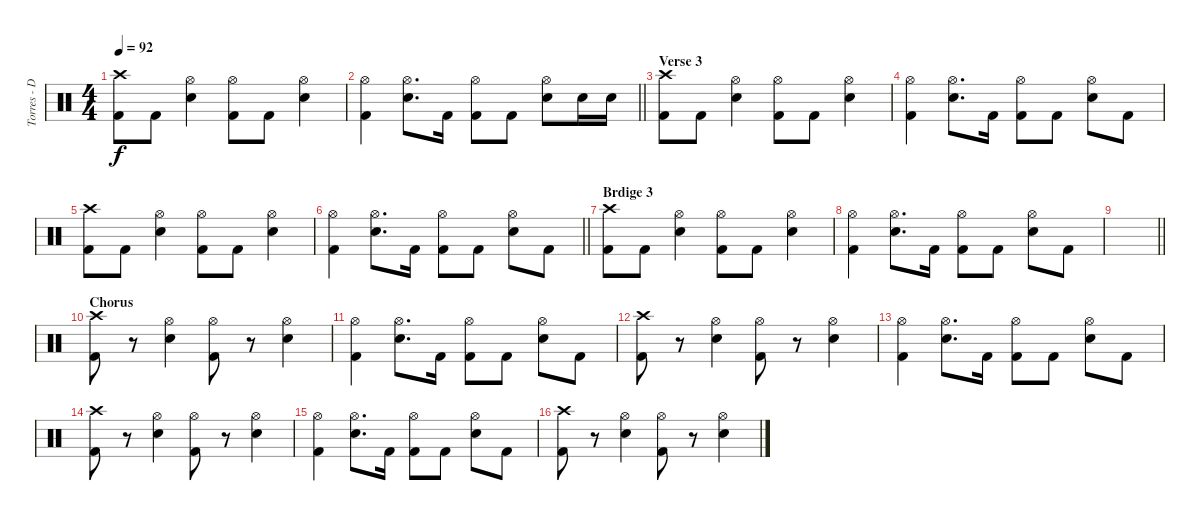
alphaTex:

\track ("Torres - Drums" "Torres - D") {instrument percussion}
\staff {score}
\articulation defaults
\ts (4 4)
\tempo 92
\clef neutral
\ks c
("Kick (hit) 2" "Crash high (hit)").8{dy f} "Kick (hit) 2".8 ("Electric Snare (hit)" "Hi-Hat (open)").4 ("Kick (hit) 2" "Hi-Hat (open)").8 "Kick (hit) 2".8 ("Electric Snare (hit)" "Hi-Hat (open)").4 |
\barLineRight lightlight
("Kick (hit) 2" "Hi-Hat (open)").4 ("Electric Snare (hit)" "Hi-Hat (open)").8{d} "Kick (hit) 2".16 ("Kick (hit) 2" "Hi-Hat (open)").8 "Kick (hit) 2".8 ("Electric Snare (hit)" "Hi-Hat (open)").8 "Electric Snare (hit)".16 "Electric Snare (hit)".16 |
\section ("" "Verse 3")
("Kick (hit) 2" "Crash high (hit)").8 "Kick (hit) 2".8 ("Electric Snare (hit)" "Hi-Hat (open)").4 ("Kick (hit) 2" "Hi-Hat (open)").8 "Kick (hit) 2".8 ("Electric Snare (hit)" "Hi-Hat (open)").4 |
("Kick (hit) 2" "Hi-Hat (open)").4 ("Electric Snare (hit)" "Hi-Hat (open)").8{d} "Kick (hit) 2".16 ("Kick (hit) 2" "Hi-Hat (open)").8 "Kick (hit) 2".8 ("Electric Snare (hit)" "Hi-Hat (open)").8 "Kick (hit) 2".8 |
("Kick (hit) 2" "Crash high (hit)").8 "Kick (hit) 2".8 ("Electric Snare (hit)" "Hi-Hat (open)").4 ("Kick (hit) 2" "Hi-Hat (open)").8 "Kick (hit) 2".8 ("Electric Snare (hit)" "Hi-Hat (open)").4 |
\barLineRight lightlight
("Kick (hit) 2" "Hi-Hat (open)").4 ("Electric Snare (hit)" "Hi-Hat (open)").8{d} "Kick (hit) 2".16 ("Kick (hit) 2" "Hi-Hat (open)").8 "Kick (hit) 2".8 ("Electric Snare (hit)" "Hi-Hat (open)").8 "Kick (hit) 2".8 |
\section ("" "Brdige 3")
("Kick (hit) 2" "Crash high (hit)").8 "Kick (hit) 2".8 ("Electric Snare (hit)" "Hi-Hat (open)").4 ("Kick (hit) 2" "Hi-Hat (open)").8 "Kick (hit) 2".8 ("Electric Snare (hit)" "Hi-Hat (open)").4 |
("Kick (hit) 2" "Hi-Hat (open)").4 ("Electric Snare (hit)" "Hi-Hat (open)").8{d} "Kick (hit) 2".16 ("Kick (hit) 2" "Hi-Hat (open)").8 "Kick (hit) 2".8 ("Electric Snare (hit)" "Hi-Hat (open)").8 "Kick (hit) 2".8 |
\barLineRight lightlight
|
\section ("" "Chorus")
("Kick (hit) 2" "Crash high (hit)").8 r.8 ("Electric Snare (hit)" "Hi-Hat (open)").4 ("Kick (hit) 2" "Hi-Hat (open)").8 r.8 ("Electric Snare (hit)" "Hi-Hat (open)").4 |
("Kick (hit) 2" "Hi-Hat (open)").4 ("Electric Snare (hit)" "Hi-Hat (open)").8{d} "Kick (hit) 2".16 ("Kick (hit) 2" "Hi-Hat (open)").8 "Kick (hit) 2".8 ("Electric Snare (hit)" "Hi-Hat (open)").8 "Kick (hit) 2".8 |
("Kick (hit) 2" "Crash high (hit)").8 r.8 ("Electric Snare (hit)" "Hi-Hat (open)").4 ("Kick (hit) 2" "Hi-Hat (open)").8 r.8 ("Electric Snare (hit)" "Hi-Hat (open)").4 |
("Kick (hit) 2" "Hi-Hat (open)").4 ("Electric Snare (hit)" "Hi-Hat (open)").8{d} "Kick (hit) 2".16 ("Kick (hit) 2" "Hi-Hat (open)").8 "Kick (hit) 2".8 ("Electric Snare (hit)" "Hi-Hat (open)").8 "Kick (hit) 2".8 |
("Kick (hit) 2" "Crash high (hit)").8 r.8 ("Electric Snare (hit)" "Hi-Hat (open)").4 ("Kick (hit) 2" "Hi-Hat (open)").8 r.8 ("Electric Snare (hit)" "Hi-Hat (open)").4 |
("Kick (hit) 2" "Hi-Hat (open)").4 ("Electric Snare (hit)" "Hi-Hat (open)").8{d} "Kick (hit) 2".16 ("Kick (hit) 2" "Hi-Hat (open)").8 "Kick (hit) 2".8 ("Electric Snare (hit)" "Hi-Hat (open)").8 "Kick (hit) 2".8 |
("Kick (hit) 2" "Crash high (hit)").8 r.8 ("Electric Snare (hit)" "Hi-Hat (open)").4 ("Kick (hit) 2" "Hi-Hat (open)").8 r.8 ("Electric Snare (hit)" "Hi-Hat (open)").4
